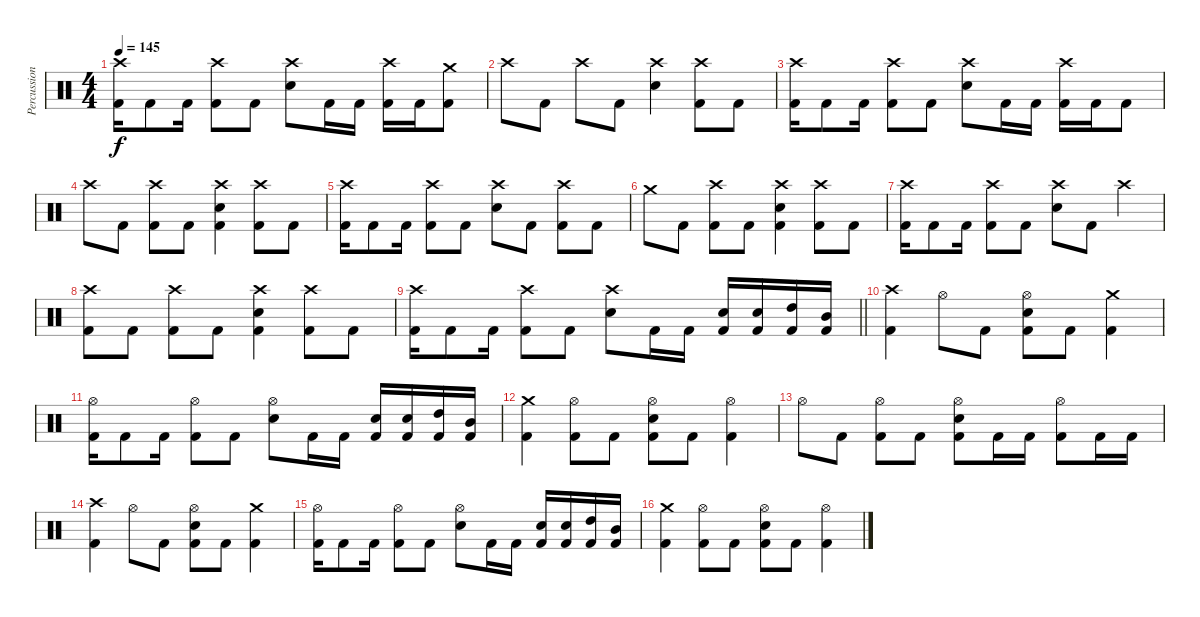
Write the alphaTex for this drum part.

\track ("Percussions" "Percussion") {instrument percussion}
\staff {score}
\articulation defaults
\ts (4 4)
\tempo 145
\clef neutral
\ks c
("Crash high (hit)" "Kick (hit) 2").16{dy f} "Kick (hit) 2".8 "Kick (hit) 2".16 ("Crash high (hit)" "Kick (hit) 2").8 "Kick (hit) 2".8 ("Crash high (hit)" "Electric Snare (hit)").8 "Kick (hit) 2".16 "Kick (hit) 2".16 ("Crash high (hit)" "Kick (hit) 2").16 "Kick (hit) 2".16 ("Crash medium (hit)" "Kick (hit) 2").8 |
"Crash high (hit)".8 "Kick (hit) 2".8 "Crash high (hit)".8 "Kick (hit) 2".8 ("Crash high (hit)" "Electric Snare (hit)").4 ("Crash high (hit)" "Kick (hit) 2").8 "Kick (hit) 2".8 |
("Crash high (hit)" "Kick (hit) 2").16 "Kick (hit) 2".8 "Kick (hit) 2".16 ("Crash high (hit)" "Kick (hit) 2").8 "Kick (hit) 2".8 ("Crash high (hit)" "Electric Snare (hit)").8 "Kick (hit) 2".16 "Kick (hit) 2".16 ("Crash high (hit)" "Kick (hit) 2").16 "Kick (hit) 2".16 "Kick (hit) 2".8 |
"Crash high (hit)".8 "Kick (hit) 2".8 ("Crash high (hit)" "Kick (hit) 2").8 "Kick (hit) 2".8 ("Crash high (hit)" "Electric Snare (hit)" "Kick (hit) 2").4 ("Crash high (hit)" "Kick (hit) 2").8 "Kick (hit) 2".8 |
("Crash high (hit)" "Kick (hit) 2").16 "Kick (hit) 2".8 "Kick (hit) 2".16 ("Crash high (hit)" "Kick (hit) 2").8 "Kick (hit) 2".8 ("Crash high (hit)" "Electric Snare (hit)").8 "Kick (hit) 2".8 ("Crash high (hit)" "Kick (hit) 2").8 "Kick (hit) 2".8 |
"Crash medium (hit)".8 "Kick (hit) 2".8 ("Crash high (hit)" "Kick (hit) 2").8 "Kick (hit) 2".8 ("Crash high (hit)" "Electric Snare (hit)" "Kick (hit) 2").4 ("Crash high (hit)" "Kick (hit) 2").8 "Kick (hit) 2".8 |
("Crash high (hit)" "Kick (hit) 2").16 "Kick (hit) 2".8 "Kick (hit) 2".16 ("Crash high (hit)" "Kick (hit) 2").8 "Kick (hit) 2".8 ("Crash high (hit)" "Electric Snare (hit)").8 "Kick (hit) 2".8 "Crash high (hit)".4 |
("Crash high (hit)" "Kick (hit) 2").8 "Kick (hit) 2".8 ("Crash high (hit)" "Kick (hit) 2").8 "Kick (hit) 2".8 ("Crash high (hit)" "Electric Snare (hit)" "Kick (hit) 2").4 ("Crash high (hit)" "Kick (hit) 2").8 "Kick (hit) 2".8 |
\barLineRight lightlight
("Crash high (hit)" "Kick (hit) 2").16 "Kick (hit) 2".8 "Kick (hit) 2".16 ("Crash high (hit)" "Kick (hit) 2").8 "Kick (hit) 2".8 ("Crash high (hit)" "Electric Snare (hit)").8 "Kick (hit) 2".16 "Kick (hit) 2".16 ("Electric Snare (hit)" "Kick (hit) 2").16 ("Electric Snare (hit)" "Kick (hit) 2").16 ("High Tom (hit)" "Kick (hit) 2").16 ("Mid Tom (hit)" "Kick (hit) 2").16 |
\section ("" "")
("Crash high (hit)" "Kick (hit) 2").4 "Hi-Hat (open)".8 "Kick (hit) 2".8 ("Hi-Hat (open)" "Electric Snare (hit)" "Kick (hit) 2").8 "Kick (hit) 2".8 ("Crash medium (hit)" "Kick (hit) 2").4 |
("Hi-Hat (open)" "Kick (hit) 2").16 "Kick (hit) 2".8 "Kick (hit) 2".16 ("Hi-Hat (open)" "Kick (hit) 2").8 "Kick (hit) 2".8 ("Hi-Hat (open)" "Electric Snare (hit)").8 "Kick (hit) 2".16 "Kick (hit) 2".16 ("Electric Snare (hit)" "Kick (hit) 2").16 ("Electric Snare (hit)" "Kick (hit) 2").16 ("High Tom (hit)" "Kick (hit) 2").16 ("Mid Tom (hit)" "Kick (hit) 2").16 |
("Crash medium (hit)" "Kick (hit) 2").4 ("Hi-Hat (open)" "Kick (hit) 2").8 "Kick (hit) 2".8 ("Hi-Hat (open)" "Electric Snare (hit)" "Kick (hit) 2").8 "Kick (hit) 2".8 ("Hi-Hat (open)" "Kick (hit) 2").4 |
"Hi-Hat (open)".8 "Kick (hit) 2".8 ("Hi-Hat (open)" "Kick (hit) 2").8 "Kick (hit) 2".8 ("Hi-Hat (open)" "Electric Snare (hit)" "Kick (hit) 2").8 "Kick (hit) 2".16 "Kick (hit) 2".16 ("Hi-Hat (open)" "Kick (hit) 2").8 "Kick (hit) 2".16 "Kick (hit) 2".16 |
("Crash high (hit)" "Kick (hit) 2").4 "Hi-Hat (open)".8 "Kick (hit) 2".8 ("Hi-Hat (open)" "Electric Snare (hit)" "Kick (hit) 2").8 "Kick (hit) 2".8 ("Crash medium (hit)" "Kick (hit) 2").4 |
("Hi-Hat (open)" "Kick (hit) 2").16 "Kick (hit) 2".8 "Kick (hit) 2".16 ("Hi-Hat (open)" "Kick (hit) 2").8 "Kick (hit) 2".8 ("Hi-Hat (open)" "Electric Snare (hit)").8 "Kick (hit) 2".16 "Kick (hit) 2".16 ("Electric Snare (hit)" "Kick (hit) 2").16 ("Electric Snare (hit)" "Kick (hit) 2").16 ("High Tom (hit)" "Kick (hit) 2").16 ("Mid Tom (hit)" "Kick (hit) 2").16 |
("Crash medium (hit)" "Kick (hit) 2").4 ("Hi-Hat (open)" "Kick (hit) 2").8 "Kick (hit) 2".8 ("Hi-Hat (open)" "Electric Snare (hit)" "Kick (hit) 2").8 "Kick (hit) 2".8 ("Hi-Hat (open)" "Kick (hit) 2").4
